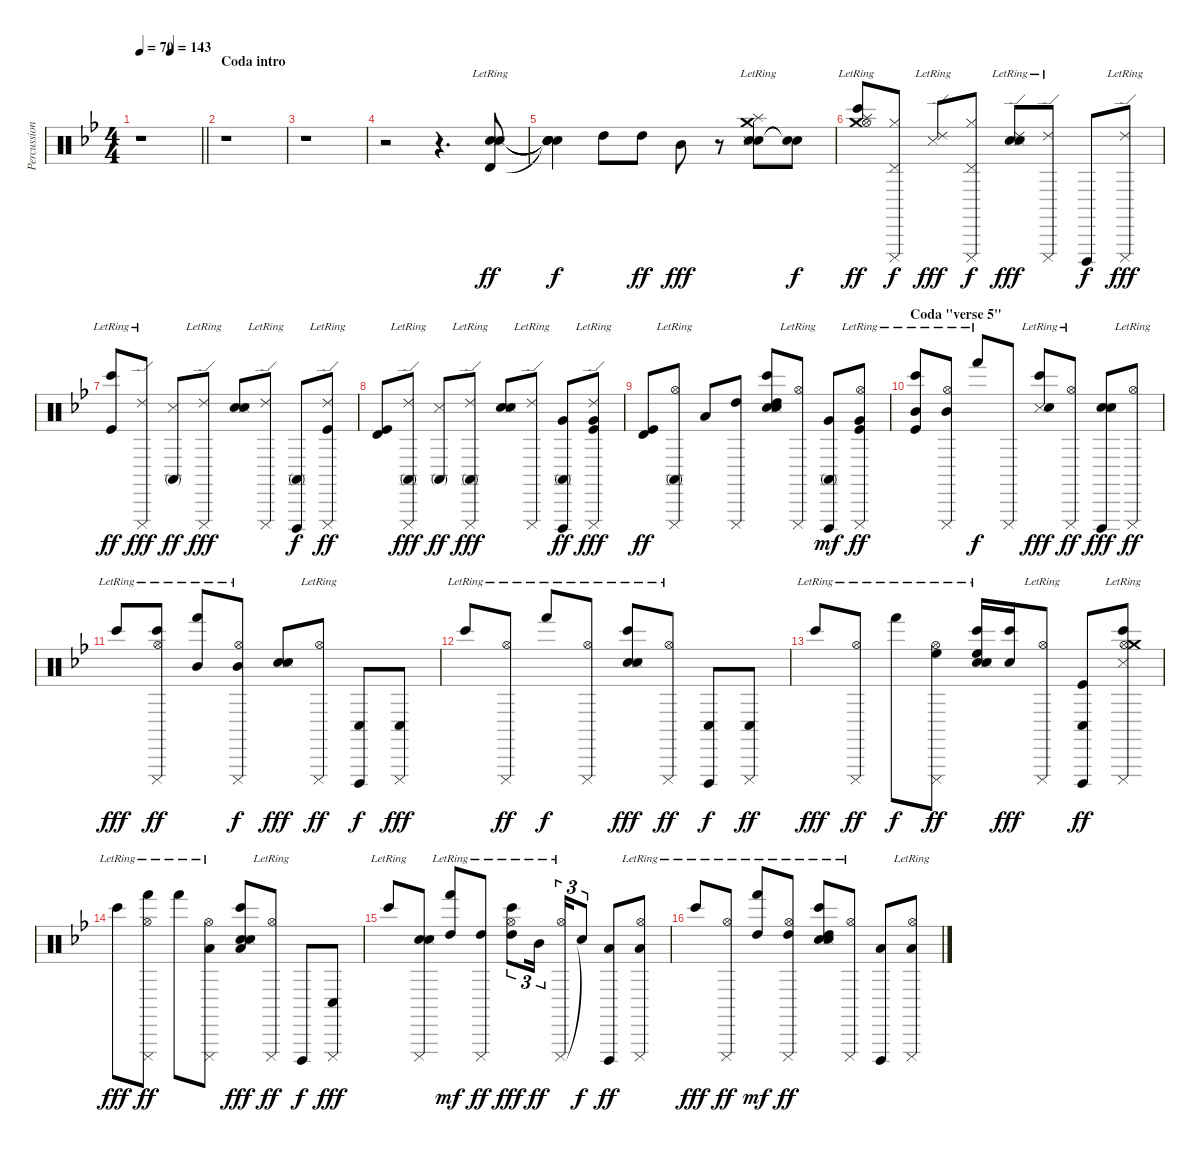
\track ("Percussion" "Percussion") {instrument percussion}
\staff {score}
\articulation defaults
\ts (4 4)
\tempo 70
\tempo (143 0.5)
\clef neutral
\barLineRight lightlight
\ks gminor
r.1{dy f} |
\section ("" "Coda intro")
r.1 |
r.1 |
r.2 r.4{d} ("Snare (hit) 2"{lr} "Snare (side stick) 3"{lr} "Snare (hit) 2"{lr} "Snare (side stick) 3"{lr} "Timbale high (hit)"{lr}).8{dy ff} |
("Snare (hit)"{t} "Snare (hit)"{t} "Snare (hit)"{t} "Snare (hit)"{t} "Snare (hit)"{t}).4{dy f} "High Tom (hit)".8 "High Tom (hit)".8{dy ff} "Mid Tom (hit)".8{dy fff} r.8 ("Snare (hit) 2" "Snare (side stick) 3" "Snare (hit) 2" "Splash (hit)"{lr} "Crash medium (hit)"{lr}).8 ("Snare (hit)"{t} "Snare (hit)"{t}).8{dy f} |
("Splash (hit)"{lr} "Crash medium (hit)"{lr} "Hi-Hat (open)"{lr} "Bongo High (hit)"{lr}).8{dy ff} ("Cuica (mute)" "Hi-Hat (closed)" "Pedal Hi-Hat (hit)").8{dy f} ("Snare (side stick) 3" "Ride (edge) 2"{lr}).8{dy fff} ("Cuica (mute)" "Hi-Hat (closed)" "Pedal Hi-Hat (hit)").8{dy f} ("Snare (hit) 2" "Snare (side stick) 3" "Snare (hit) 2" "Ride (edge) 2"{lr}).8{dy fff} ("Cuica (mute)" "Ride (edge) 2"{lr}).8 "Cuica (open)".8{dy f} ("Cuica (mute)" "Ride (edge) 2"{lr}).8{dy fff} |
("Bongo High (hit)"{lr} "Kick (hit)").8{dy ff} ("Cuica (mute)" "Ride (edge) 2"{lr}).8{dy fff} ("Snare (side stick) 3" "Conga high (mute)").8{dy ff} ("Cuica (mute)" "Ride (edge) 2"{lr}).8{dy fff} ("Snare (hit) 2" "Snare (side stick) 3" "Snare (hit) 2").8 ("Cuica (mute)" "Ride (edge) 2"{lr}).8 ("Cuica (open)" "Conga high (mute)").8{dy f} ("Cuica (mute)" "Ride (edge) 2"{lr} "Kick (hit)").8{dy ff} |
("Timbale high (hit)" "Kick (hit)").8 ("Cuica (mute)" "Ride (edge) 2"{lr} "Conga high (mute)").8{dy fff} ("Snare (side stick) 3" "Conga high (mute)").8{dy ff} ("Cuica (mute)" "Ride (edge) 2"{lr} "Conga high (mute)").8{dy fff} ("Snare (hit) 2" "Snare (side stick) 3" "Snare (hit) 2").8 ("Cuica (mute)" "Ride (edge) 2"{lr}).8 ("Cuica (open)" "Very Low Tom (hit)" "Conga high (mute)").8{dy ff} ("Cuica (mute)" "Very Low Tom (hit)" "Ride (edge) 2"{lr} "Kick (hit)").8{dy fff} |
("Timbale high (hit)" "Kick (hit)").8{dy ff} ("Cuica (mute)" "Hi-Hat (open)"{lr} "Conga high (mute)").8 "Low Tom (hit)".8 ("Cuica (mute)" "High Tom (hit)").8 ("Snare (hit) 2" "Snare (side stick) 3" "Snare (hit) 2" "Bongo High (hit)" "High Tom (hit)").8 ("Cuica (mute)" "Hi-Hat (open)"{lr}).8 ("Cuica (open)" "Very Low Tom (hit)" "Conga high (mute)").8{dy mf} ("Cuica (mute)" "Very Low Tom (hit)" "Hi-Hat (open)"{lr} "Kick (hit)").8{dy ff} |
\section ("" "Coda \"verse 5\"")
("Mid Tom (hit)" "Bongo High (hit)"{lr} "Kick (hit)").8 ("Cuica (mute)" "Mid Tom (hit)"{lr} "Hi-Hat (open)"{lr}).8 "Hand (hit)"{lr}.8{dy f} "Cuica (mute)".8 ("Snare (side stick) 3" "Snare (hit) 2" "Bongo High (hit)"{lr}).8{dy fff} ("Cuica (mute)" "Hi-Hat (open)"{lr}).8{dy ff} ("Cuica (open)" "Snare (hit) 2" "Snare (side stick) 3" "Snare (hit) 2").8{dy fff} ("Cuica (mute)" "Hi-Hat (open)"{lr}).8{dy ff} |
"Bongo High (hit)"{lr}.8{dy fff} ("Cuica (mute)" "Hi-Hat (open)"{lr} "Bongo High (hit)").8{dy ff} ("Mid Tom (hit)" "Hand (hit)"{lr}).8 ("Cuica (mute)" "Mid Tom (hit)" "Hi-Hat (open)"{lr}).8{dy f} ("Snare (hit) 2" "Snare (side stick) 3" "Snare (hit) 2").8{dy fff} ("Cuica (mute)" "Hi-Hat (open)"{lr}).8{dy ff} ("Cuica (open)" "Conga low (hit)").8{dy f} ("Cuica (mute)" "Conga low (hit)").8{dy fff} |
"Bongo High (hit)"{lr}.8 ("Cuica (mute)" "Hi-Hat (open)"{lr}).8{dy ff} "Hand (hit)"{lr}.8{dy f} ("Cuica (mute)" "Hi-Hat (open)"{lr}).8 ("Snare (hit) 2" "Snare (side stick) 3" "Snare (hit) 2" "Bongo High (hit)"{lr}).8{dy fff} ("Cuica (mute)" "Hi-Hat (open)"{lr}).8{dy ff} ("Cuica (open)" "Conga low (hit)").8{dy f} ("Cuica (mute)" "Conga low (hit)").8{dy ff} |
"Bongo High (hit)"{lr}.8{dy fff} ("Cuica (mute)" "Hi-Hat (open)"{lr}).8{dy ff} "Hand (hit)"{lr}.8{dy f} ("Cuica (mute)" "High Floor Tom (hit)" "Hi-Hat (open)"{lr}).8{dy ff} ("Snare (hit) 2" "Snare (side stick) 3" "Snare (hit) 2" "High Floor Tom (hit)"{lr} "Bongo High (hit)"{lr}).16 ("Snare (hit) 2" "Bongo High (hit)").16{dy fff} ("Cuica (mute)" "Hi-Hat (open)"{lr}).8 ("Cuica (open)" "Conga low (hit)" "Kick (hit)").8{dy ff} ("Cuica (mute)" "Bongo High (hit)" "Snare (side stick) 3" "Hi-Hat (open)"{lr} "Crash medium (hit)"{lr}).8 |
"Bongo High (hit)"{lr}.8{dy fff} ("Cuica (mute)" "Hi-Hat (open)"{lr} "Hand (hit)").8{dy ff} "Hand (hit)"{lr}.8 ("Cuica (mute)" "Low Tom (hit)" "Hi-Hat (open)"{lr}).8 ("Snare (hit) 2" "Snare (side stick) 3" "Snare (hit) 2" "Low Tom (hit)" "Bongo High (hit)").8{dy fff} ("Cuica (mute)" "Hi-Hat (open)"{lr}).8{dy ff} "Cuica (open)".8{dy f} ("Cuica (mute)" "Conga low (hit)").8{dy fff} |
"Bongo High (hit)"{lr}.8 ("Cuica (mute)" "Snare (hit) 2" "Snare (side stick) 3" "Snare (hit) 2").8 ("High Tom (hit)" "Hand (hit)"{lr}).8{dy mf} ("Cuica (mute)" "High Tom (hit)"{lr}).8{dy ff} ("High Tom (hit)"{lr} "Hi-Hat (open)"{lr} "Bongo High (hit)"{lr}).8{tu (3 2) dy fff} "Mid Tom (hit)"{lr}.16{tu (3 2) dy ff} ("Cuica (mute)" "Hi-Hat (open)"{lr}).16{tu (3 2)} "Snare (hit)"{t}.8{tu (3 2) dy f} ("Cuica (open)" "Low Tom (hit)").8{dy ff} ("Cuica (mute)" "Low Tom (hit)"{lr} "Hi-Hat (open)"{lr}).8 |
"Bongo High (hit)"{lr}.8{dy fff} ("Cuica (mute)" "Hi-Hat (open)"{lr}).8{dy ff} ("High Tom (hit)" "Hand (hit)"{lr}).8{dy mf} ("Cuica (mute)" "High Tom (hit)" "Hi-Hat (open)"{lr}).8{dy ff} ("Snare (hit) 2" "Snare (side stick) 3" "Snare (hit) 2" "Bongo High (hit)"{lr} "High Tom (hit)"{lr}).8 ("Cuica (mute)" "Hi-Hat (open)"{lr}).8 ("Cuica (open)" "Low Tom (hit)").8 ("Cuica (mute)" "Low Tom (hit)"{lr} "Hi-Hat (open)"{lr}).8
